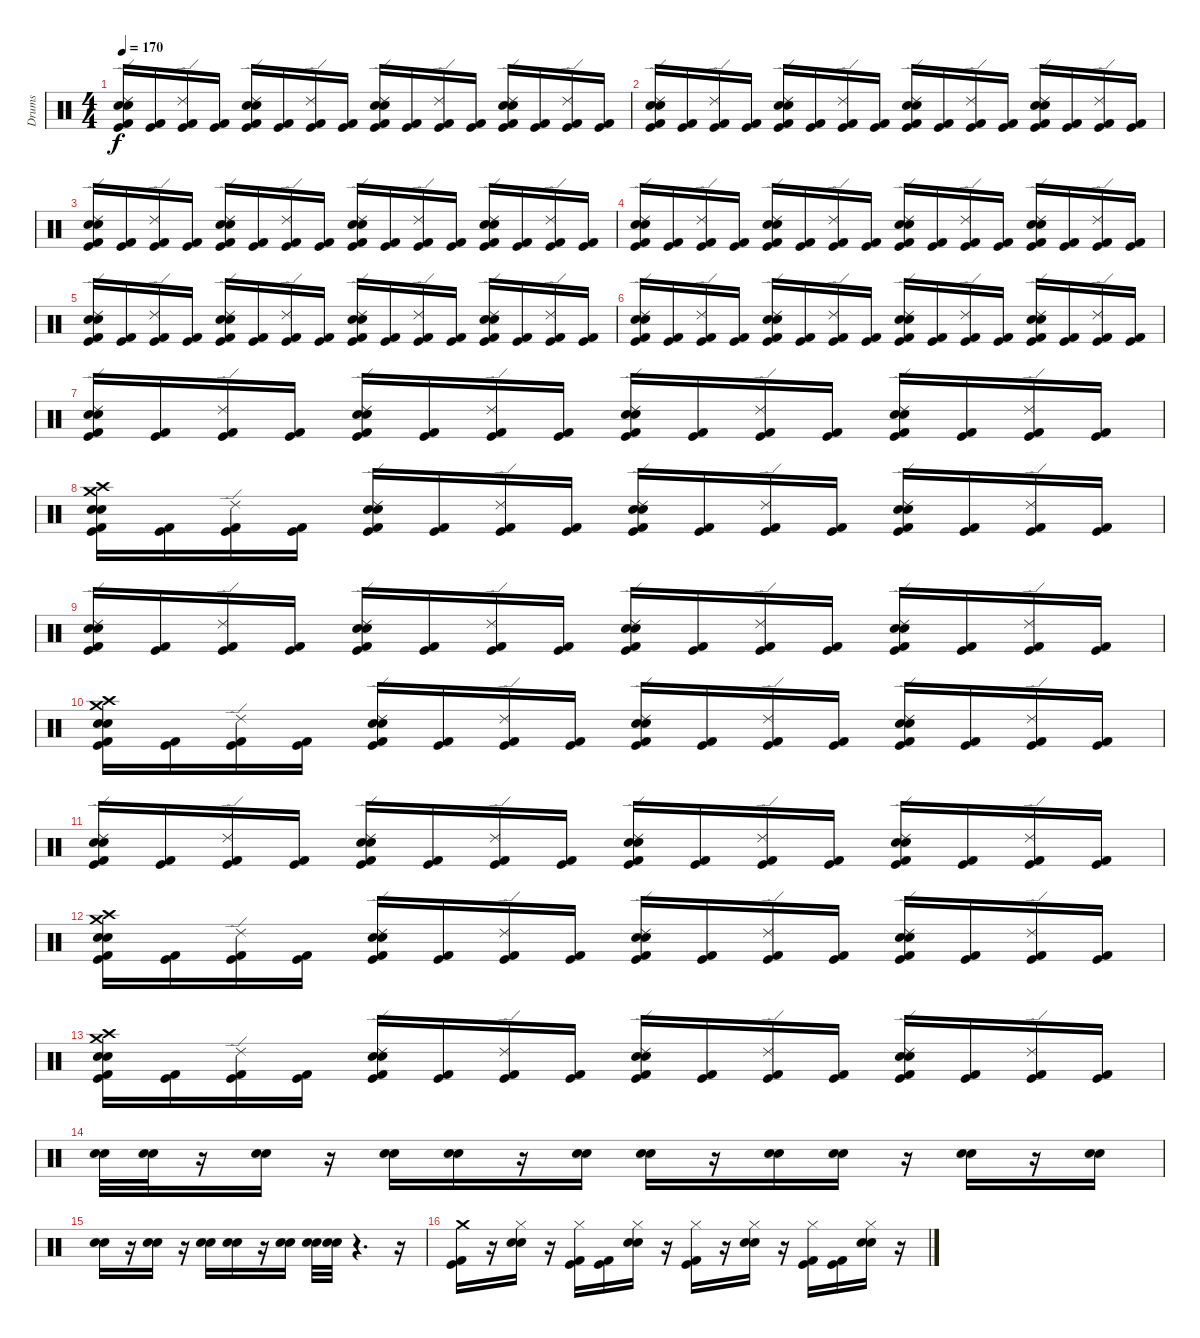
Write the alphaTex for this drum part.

\track ("Drums" "Drums") {instrument percussion}
\staff {score}
\articulation defaults
\ts (4 4)
\tempo 170
\clef neutral
\ks c
("Electric Snare (hit)" "Snare (hit) 2" "Ride (edge) 2" "Kick (hit) 2" "Kick (hit)").16{dy f} ("Kick (hit) 2" "Kick (hit)").16 ("Ride (edge) 2" "Kick (hit) 2" "Kick (hit)").16 ("Kick (hit) 2" "Kick (hit)").16 ("Electric Snare (hit)" "Snare (hit) 2" "Ride (edge) 2" "Kick (hit) 2" "Kick (hit)").16 ("Kick (hit) 2" "Kick (hit)").16 ("Ride (edge) 2" "Kick (hit) 2" "Kick (hit)").16 ("Kick (hit) 2" "Kick (hit)").16 ("Snare (hit) 2" "Electric Snare (hit)" "Ride (edge) 2" "Kick (hit) 2" "Kick (hit)").16 ("Kick (hit) 2" "Kick (hit)").16 ("Ride (edge) 2" "Kick (hit) 2" "Kick (hit)").16 ("Kick (hit) 2" "Kick (hit)").16 ("Electric Snare (hit)" "Snare (hit) 2" "Ride (edge) 2" "Kick (hit) 2" "Kick (hit)").16 ("Kick (hit) 2" "Kick (hit)").16 ("Ride (edge) 2" "Kick (hit) 2" "Kick (hit)").16 ("Kick (hit) 2" "Kick (hit)").16 |
("Electric Snare (hit)" "Snare (hit) 2" "Ride (edge) 2" "Kick (hit) 2" "Kick (hit)").16 ("Kick (hit) 2" "Kick (hit)").16 ("Ride (edge) 2" "Kick (hit) 2" "Kick (hit)").16 ("Kick (hit) 2" "Kick (hit)").16 ("Electric Snare (hit)" "Snare (hit) 2" "Ride (edge) 2" "Kick (hit) 2" "Kick (hit)").16 ("Kick (hit) 2" "Kick (hit)").16 ("Ride (edge) 2" "Kick (hit) 2" "Kick (hit)").16 ("Kick (hit) 2" "Kick (hit)").16 ("Snare (hit) 2" "Electric Snare (hit)" "Ride (edge) 2" "Kick (hit) 2" "Kick (hit)").16 ("Kick (hit) 2" "Kick (hit)").16 ("Ride (edge) 2" "Kick (hit) 2" "Kick (hit)").16 ("Kick (hit) 2" "Kick (hit)").16 ("Electric Snare (hit)" "Snare (hit) 2" "Ride (edge) 2" "Kick (hit) 2" "Kick (hit)").16 ("Kick (hit) 2" "Kick (hit)").16 ("Ride (edge) 2" "Kick (hit) 2" "Kick (hit)").16 ("Kick (hit) 2" "Kick (hit)").16 |
("Electric Snare (hit)" "Snare (hit) 2" "Ride (edge) 2" "Kick (hit) 2" "Kick (hit)").16 ("Kick (hit) 2" "Kick (hit)").16 ("Ride (edge) 2" "Kick (hit) 2" "Kick (hit)").16 ("Kick (hit) 2" "Kick (hit)").16 ("Electric Snare (hit)" "Snare (hit) 2" "Ride (edge) 2" "Kick (hit) 2" "Kick (hit)").16 ("Kick (hit) 2" "Kick (hit)").16 ("Ride (edge) 2" "Kick (hit) 2" "Kick (hit)").16 ("Kick (hit) 2" "Kick (hit)").16 ("Snare (hit) 2" "Electric Snare (hit)" "Ride (edge) 2" "Kick (hit) 2" "Kick (hit)").16 ("Kick (hit) 2" "Kick (hit)").16 ("Ride (edge) 2" "Kick (hit) 2" "Kick (hit)").16 ("Kick (hit) 2" "Kick (hit)").16 ("Electric Snare (hit)" "Snare (hit) 2" "Ride (edge) 2" "Kick (hit) 2" "Kick (hit)").16 ("Kick (hit) 2" "Kick (hit)").16 ("Ride (edge) 2" "Kick (hit) 2" "Kick (hit)").16 ("Kick (hit) 2" "Kick (hit)").16 |
("Electric Snare (hit)" "Snare (hit) 2" "Ride (edge) 2" "Kick (hit) 2" "Kick (hit)").16 ("Kick (hit) 2" "Kick (hit)").16 ("Ride (edge) 2" "Kick (hit) 2" "Kick (hit)").16 ("Kick (hit) 2" "Kick (hit)").16 ("Electric Snare (hit)" "Snare (hit) 2" "Ride (edge) 2" "Kick (hit) 2" "Kick (hit)").16 ("Kick (hit) 2" "Kick (hit)").16 ("Ride (edge) 2" "Kick (hit) 2" "Kick (hit)").16 ("Kick (hit) 2" "Kick (hit)").16 ("Snare (hit) 2" "Electric Snare (hit)" "Ride (edge) 2" "Kick (hit) 2" "Kick (hit)").16 ("Kick (hit) 2" "Kick (hit)").16 ("Ride (edge) 2" "Kick (hit) 2" "Kick (hit)").16 ("Kick (hit) 2" "Kick (hit)").16 ("Electric Snare (hit)" "Snare (hit) 2" "Ride (edge) 2" "Kick (hit) 2" "Kick (hit)").16 ("Kick (hit) 2" "Kick (hit)").16 ("Ride (edge) 2" "Kick (hit) 2" "Kick (hit)").16 ("Kick (hit) 2" "Kick (hit)").16 |
("Electric Snare (hit)" "Snare (hit) 2" "Ride (edge) 2" "Kick (hit) 2" "Kick (hit)").16 ("Kick (hit) 2" "Kick (hit)").16 ("Ride (edge) 2" "Kick (hit) 2" "Kick (hit)").16 ("Kick (hit) 2" "Kick (hit)").16 ("Electric Snare (hit)" "Snare (hit) 2" "Ride (edge) 2" "Kick (hit) 2" "Kick (hit)").16 ("Kick (hit) 2" "Kick (hit)").16 ("Ride (edge) 2" "Kick (hit) 2" "Kick (hit)").16 ("Kick (hit) 2" "Kick (hit)").16 ("Snare (hit) 2" "Electric Snare (hit)" "Ride (edge) 2" "Kick (hit) 2" "Kick (hit)").16 ("Kick (hit) 2" "Kick (hit)").16 ("Ride (edge) 2" "Kick (hit) 2" "Kick (hit)").16 ("Kick (hit) 2" "Kick (hit)").16 ("Electric Snare (hit)" "Snare (hit) 2" "Ride (edge) 2" "Kick (hit) 2" "Kick (hit)").16 ("Kick (hit) 2" "Kick (hit)").16 ("Ride (edge) 2" "Kick (hit) 2" "Kick (hit)").16 ("Kick (hit) 2" "Kick (hit)").16 |
("Electric Snare (hit)" "Snare (hit) 2" "Ride (edge) 2" "Kick (hit) 2" "Kick (hit)").16 ("Kick (hit) 2" "Kick (hit)").16 ("Ride (edge) 2" "Kick (hit) 2" "Kick (hit)").16 ("Kick (hit) 2" "Kick (hit)").16 ("Electric Snare (hit)" "Snare (hit) 2" "Ride (edge) 2" "Kick (hit) 2" "Kick (hit)").16 ("Kick (hit) 2" "Kick (hit)").16 ("Ride (edge) 2" "Kick (hit) 2" "Kick (hit)").16 ("Kick (hit) 2" "Kick (hit)").16 ("Snare (hit) 2" "Electric Snare (hit)" "Ride (edge) 2" "Kick (hit) 2" "Kick (hit)").16 ("Kick (hit) 2" "Kick (hit)").16 ("Ride (edge) 2" "Kick (hit) 2" "Kick (hit)").16 ("Kick (hit) 2" "Kick (hit)").16 ("Electric Snare (hit)" "Snare (hit) 2" "Ride (edge) 2" "Kick (hit) 2" "Kick (hit)").16 ("Kick (hit) 2" "Kick (hit)").16 ("Ride (edge) 2" "Kick (hit) 2" "Kick (hit)").16 ("Kick (hit) 2" "Kick (hit)").16 |
("Electric Snare (hit)" "Snare (hit) 2" "Ride (edge) 2" "Kick (hit) 2" "Kick (hit)").16 ("Kick (hit) 2" "Kick (hit)").16 ("Ride (edge) 2" "Kick (hit) 2" "Kick (hit)").16 ("Kick (hit) 2" "Kick (hit)").16 ("Electric Snare (hit)" "Snare (hit) 2" "Ride (edge) 2" "Kick (hit) 2" "Kick (hit)").16 ("Kick (hit) 2" "Kick (hit)").16 ("Ride (edge) 2" "Kick (hit) 2" "Kick (hit)").16 ("Kick (hit) 2" "Kick (hit)").16 ("Snare (hit) 2" "Electric Snare (hit)" "Ride (edge) 2" "Kick (hit) 2" "Kick (hit)").16 ("Kick (hit) 2" "Kick (hit)").16 ("Ride (edge) 2" "Kick (hit) 2" "Kick (hit)").16 ("Kick (hit) 2" "Kick (hit)").16 ("Electric Snare (hit)" "Snare (hit) 2" "Ride (edge) 2" "Kick (hit) 2" "Kick (hit)").16 ("Kick (hit) 2" "Kick (hit)").16 ("Ride (edge) 2" "Kick (hit) 2" "Kick (hit)").16 ("Kick (hit) 2" "Kick (hit)").16 |
("Crash high (hit)" "Crash medium (hit)" "Electric Snare (hit)" "Snare (hit) 2" "Kick (hit) 2" "Kick (hit)").16 ("Kick (hit) 2" "Kick (hit)").16 ("Ride (edge) 2" "Kick (hit) 2" "Kick (hit)").16 ("Kick (hit) 2" "Kick (hit)").16 ("Electric Snare (hit)" "Snare (hit) 2" "Ride (edge) 2" "Kick (hit) 2" "Kick (hit)").16 ("Kick (hit) 2" "Kick (hit)").16 ("Ride (edge) 2" "Kick (hit) 2" "Kick (hit)").16 ("Kick (hit) 2" "Kick (hit)").16 ("Snare (hit) 2" "Electric Snare (hit)" "Ride (edge) 2" "Kick (hit) 2" "Kick (hit)").16 ("Kick (hit) 2" "Kick (hit)").16 ("Ride (edge) 2" "Kick (hit) 2" "Kick (hit)").16 ("Kick (hit) 2" "Kick (hit)").16 ("Electric Snare (hit)" "Snare (hit) 2" "Ride (edge) 2" "Kick (hit) 2" "Kick (hit)").16 ("Kick (hit) 2" "Kick (hit)").16 ("Ride (edge) 2" "Kick (hit) 2" "Kick (hit)").16 ("Kick (hit) 2" "Kick (hit)").16 |
("Electric Snare (hit)" "Snare (hit) 2" "Ride (edge) 2" "Kick (hit) 2" "Kick (hit)").16 ("Kick (hit) 2" "Kick (hit)").16 ("Ride (edge) 2" "Kick (hit) 2" "Kick (hit)").16 ("Kick (hit) 2" "Kick (hit)").16 ("Electric Snare (hit)" "Snare (hit) 2" "Ride (edge) 2" "Kick (hit) 2" "Kick (hit)").16 ("Kick (hit) 2" "Kick (hit)").16 ("Ride (edge) 2" "Kick (hit) 2" "Kick (hit)").16 ("Kick (hit) 2" "Kick (hit)").16 ("Snare (hit) 2" "Electric Snare (hit)" "Ride (edge) 2" "Kick (hit) 2" "Kick (hit)").16 ("Kick (hit) 2" "Kick (hit)").16 ("Ride (edge) 2" "Kick (hit) 2" "Kick (hit)").16 ("Kick (hit) 2" "Kick (hit)").16 ("Electric Snare (hit)" "Snare (hit) 2" "Ride (edge) 2" "Kick (hit) 2" "Kick (hit)").16 ("Kick (hit) 2" "Kick (hit)").16 ("Ride (edge) 2" "Kick (hit) 2" "Kick (hit)").16 ("Kick (hit) 2" "Kick (hit)").16 |
("Crash high (hit)" "Crash medium (hit)" "Electric Snare (hit)" "Snare (hit) 2" "Kick (hit) 2" "Kick (hit)").16 ("Kick (hit) 2" "Kick (hit)").16 ("Ride (edge) 2" "Kick (hit) 2" "Kick (hit)").16 ("Kick (hit) 2" "Kick (hit)").16 ("Electric Snare (hit)" "Snare (hit) 2" "Ride (edge) 2" "Kick (hit) 2" "Kick (hit)").16 ("Kick (hit) 2" "Kick (hit)").16 ("Ride (edge) 2" "Kick (hit) 2" "Kick (hit)").16 ("Kick (hit) 2" "Kick (hit)").16 ("Snare (hit) 2" "Electric Snare (hit)" "Ride (edge) 2" "Kick (hit) 2" "Kick (hit)").16 ("Kick (hit) 2" "Kick (hit)").16 ("Ride (edge) 2" "Kick (hit) 2" "Kick (hit)").16 ("Kick (hit) 2" "Kick (hit)").16 ("Electric Snare (hit)" "Snare (hit) 2" "Ride (edge) 2" "Kick (hit) 2" "Kick (hit)").16 ("Kick (hit) 2" "Kick (hit)").16 ("Ride (edge) 2" "Kick (hit) 2" "Kick (hit)").16 ("Kick (hit) 2" "Kick (hit)").16 |
("Electric Snare (hit)" "Snare (hit) 2" "Ride (edge) 2" "Kick (hit) 2" "Kick (hit)").16 ("Kick (hit) 2" "Kick (hit)").16 ("Ride (edge) 2" "Kick (hit) 2" "Kick (hit)").16 ("Kick (hit) 2" "Kick (hit)").16 ("Electric Snare (hit)" "Snare (hit) 2" "Ride (edge) 2" "Kick (hit) 2" "Kick (hit)").16 ("Kick (hit) 2" "Kick (hit)").16 ("Ride (edge) 2" "Kick (hit) 2" "Kick (hit)").16 ("Kick (hit) 2" "Kick (hit)").16 ("Snare (hit) 2" "Electric Snare (hit)" "Ride (edge) 2" "Kick (hit) 2" "Kick (hit)").16 ("Kick (hit) 2" "Kick (hit)").16 ("Ride (edge) 2" "Kick (hit) 2" "Kick (hit)").16 ("Kick (hit) 2" "Kick (hit)").16 ("Electric Snare (hit)" "Snare (hit) 2" "Ride (edge) 2" "Kick (hit) 2" "Kick (hit)").16 ("Kick (hit) 2" "Kick (hit)").16 ("Ride (edge) 2" "Kick (hit) 2" "Kick (hit)").16 ("Kick (hit) 2" "Kick (hit)").16 |
("Crash high (hit)" "Crash medium (hit)" "Electric Snare (hit)" "Snare (hit) 2" "Kick (hit) 2" "Kick (hit)").16 ("Kick (hit) 2" "Kick (hit)").16 ("Ride (edge) 2" "Kick (hit) 2" "Kick (hit)").16 ("Kick (hit) 2" "Kick (hit)").16 ("Electric Snare (hit)" "Snare (hit) 2" "Ride (edge) 2" "Kick (hit) 2" "Kick (hit)").16 ("Kick (hit) 2" "Kick (hit)").16 ("Ride (edge) 2" "Kick (hit) 2" "Kick (hit)").16 ("Kick (hit) 2" "Kick (hit)").16 ("Snare (hit) 2" "Electric Snare (hit)" "Ride (edge) 2" "Kick (hit) 2" "Kick (hit)").16 ("Kick (hit) 2" "Kick (hit)").16 ("Ride (edge) 2" "Kick (hit) 2" "Kick (hit)").16 ("Kick (hit) 2" "Kick (hit)").16 ("Electric Snare (hit)" "Snare (hit) 2" "Ride (edge) 2" "Kick (hit) 2" "Kick (hit)").16 ("Kick (hit) 2" "Kick (hit)").16 ("Ride (edge) 2" "Kick (hit) 2" "Kick (hit)").16 ("Kick (hit) 2" "Kick (hit)").16 |
("Crash high (hit)" "Crash medium (hit)" "Electric Snare (hit)" "Snare (hit) 2" "Kick (hit) 2" "Kick (hit)").16 ("Kick (hit) 2" "Kick (hit)").16 ("Ride (edge) 2" "Kick (hit) 2" "Kick (hit)").16 ("Kick (hit) 2" "Kick (hit)").16 ("Electric Snare (hit)" "Snare (hit) 2" "Ride (edge) 2" "Kick (hit) 2" "Kick (hit)").16 ("Kick (hit) 2" "Kick (hit)").16 ("Ride (edge) 2" "Kick (hit) 2" "Kick (hit)").16 ("Kick (hit) 2" "Kick (hit)").16 ("Snare (hit) 2" "Electric Snare (hit)" "Ride (edge) 2" "Kick (hit) 2" "Kick (hit)").16 ("Kick (hit) 2" "Kick (hit)").16 ("Ride (edge) 2" "Kick (hit) 2" "Kick (hit)").16 ("Kick (hit) 2" "Kick (hit)").16 ("Electric Snare (hit)" "Snare (hit) 2" "Ride (edge) 2" "Kick (hit) 2" "Kick (hit)").16 ("Kick (hit) 2" "Kick (hit)").16 ("Ride (edge) 2" "Kick (hit) 2" "Kick (hit)").16 ("Kick (hit) 2" "Kick (hit)").16 |
("Electric Snare (hit)" "Snare (hit) 2").32 ("Electric Snare (hit)" "Snare (hit) 2").32 r.16 ("Electric Snare (hit)" "Snare (hit) 2").16 r.16 ("Electric Snare (hit)" "Snare (hit) 2").16 ("Electric Snare (hit)" "Snare (hit) 2").16 r.16 ("Electric Snare (hit)" "Snare (hit) 2").16 ("Electric Snare (hit)" "Snare (hit) 2").16 r.16 ("Electric Snare (hit)" "Snare (hit) 2").16 ("Electric Snare (hit)" "Snare (hit) 2").16 r.16 ("Electric Snare (hit)" "Snare (hit) 2").16 r.16 ("Electric Snare (hit)" "Snare (hit) 2").16 |
("Electric Snare (hit)" "Snare (hit) 2").16 r.16 ("Electric Snare (hit)" "Snare (hit) 2").16 r.16 ("Electric Snare (hit)" "Snare (hit) 2").16 ("Electric Snare (hit)" "Snare (hit) 2").16 r.16 ("Electric Snare (hit)" "Snare (hit) 2").16 ("Electric Snare (hit)" "Snare (hit) 2").32 ("Electric Snare (hit)" "Snare (hit) 2").32 r.4{d} r.16 |
("Crash medium (hit)" "Kick (hit) 2" "Kick (hit)").16 r.16 ("Hi-Hat (closed)" "Electric Snare (hit)" "Snare (hit) 2").16 r.16 ("Kick (hit) 2" "Kick (hit)" "Hi-Hat (closed)").16 ("Kick (hit) 2" "Kick (hit)").16 ("Electric Snare (hit)" "Snare (hit) 2" "Hi-Hat (closed)").16 r.16 ("Kick (hit) 2" "Kick (hit)" "Hi-Hat (closed)").16 r.16 ("Electric Snare (hit)" "Snare (hit) 2" "Hi-Hat (closed)").16 r.16 ("Kick (hit) 2" "Kick (hit)" "Hi-Hat (closed)").16 ("Kick (hit) 2" "Kick (hit)").16 ("Electric Snare (hit)" "Snare (hit) 2" "Hi-Hat (closed)").16 r.16
